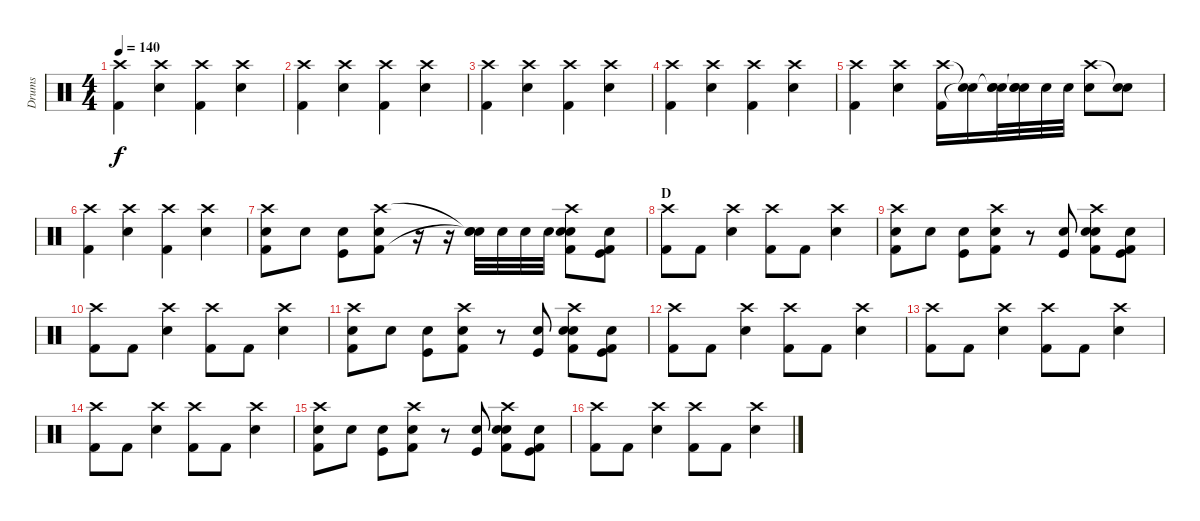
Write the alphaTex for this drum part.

\track ("Drums" "Drums") {instrument percussion}
\staff {score}
\articulation defaults
\ts (4 4)
\tempo 140
\clef neutral
\ks c
("Crash high (hit)" "Kick (hit) 2").4{dy f} ("Crash high (hit)" "Electric Snare (hit)").4 ("Crash high (hit)" "Kick (hit) 2").4 ("Crash high (hit)" "Electric Snare (hit)").4 |
("Crash high (hit)" "Kick (hit) 2").4 ("Crash high (hit)" "Electric Snare (hit)").4 ("Crash high (hit)" "Kick (hit) 2").4 ("Crash high (hit)" "Electric Snare (hit)").4 |
("Crash high (hit)" "Kick (hit) 2").4 ("Crash high (hit)" "Electric Snare (hit)").4 ("Crash high (hit)" "Kick (hit) 2").4 ("Crash high (hit)" "Electric Snare (hit)").4 |
("Crash high (hit)" "Kick (hit) 2").4 ("Crash high (hit)" "Electric Snare (hit)").4 ("Crash high (hit)" "Kick (hit) 2").4 ("Crash high (hit)" "Electric Snare (hit)").4 |
("Crash high (hit)" "Kick (hit) 2").4 ("Crash high (hit)" "Electric Snare (hit)").4 ("Crash high (hit)" "Kick (hit) 2").16 ("Snare (hit)"{t} "Snare (hit)"{t}).16 ("Snare (hit)"{t} "Electric Snare (hit)" "Snare (hit)").32 ("Snare (hit)"{t} "Electric Snare (hit)" "Snare (hit)"{t}).32 "Electric Snare (hit)".32 "Electric Snare (hit)".32 ("Crash high (hit)" "Electric Snare (hit)").8 ("Snare (hit)"{t} "Electric Snare (hit)").8 |
("Crash high (hit)" "Kick (hit) 2").4 ("Crash high (hit)" "Electric Snare (hit)").4 ("Crash high (hit)" "Kick (hit) 2").4 ("Crash high (hit)" "Electric Snare (hit)").4 |
("Crash high (hit)" "Electric Snare (hit)" "Kick (hit) 2").8 "Electric Snare (hit)".8 ("Kick (hit)" "Electric Snare (hit)").8 ("Crash high (hit)" "Electric Snare (hit)" "Kick (hit) 2").8 r.16 r.16 ("Snare (hit)"{t} "Electric Snare (hit)" "Snare (hit)"{t}).32 "Electric Snare (hit)".32 "Electric Snare (hit)".32 "Electric Snare (hit)".32 ("Crash high (hit)" "Electric Snare (hit)" "Snare (hit) 2" "Kick (hit) 2").8 ("Electric Snare (hit)" "Kick (hit)" "Kick (hit) 2").8 |
\section ("" "D")
("Crash high (hit)" "Kick (hit) 2").8 "Kick (hit) 2".8 ("Crash high (hit)" "Electric Snare (hit)").4 ("Crash high (hit)" "Kick (hit) 2").8 "Kick (hit) 2".8 ("Crash high (hit)" "Electric Snare (hit)").4 |
("Crash high (hit)" "Electric Snare (hit)" "Kick (hit) 2").8 "Electric Snare (hit)".8 ("Kick (hit)" "Electric Snare (hit)").8 ("Crash high (hit)" "Electric Snare (hit)" "Kick (hit) 2").8 r.8 ("Kick (hit)" "Electric Snare (hit)").8 ("Crash high (hit)" "Electric Snare (hit)" "Snare (hit) 2" "Kick (hit) 2").8 ("Electric Snare (hit)" "Kick (hit)" "Kick (hit) 2").8 |
("Crash high (hit)" "Kick (hit) 2").8 "Kick (hit) 2".8 ("Crash high (hit)" "Electric Snare (hit)").4 ("Crash high (hit)" "Kick (hit) 2").8 "Kick (hit) 2".8 ("Crash high (hit)" "Electric Snare (hit)").4 |
("Crash high (hit)" "Electric Snare (hit)" "Kick (hit) 2").8 "Electric Snare (hit)".8 ("Kick (hit)" "Electric Snare (hit)").8 ("Crash high (hit)" "Electric Snare (hit)" "Kick (hit) 2").8 r.8 ("Kick (hit)" "Electric Snare (hit)").8 ("Crash high (hit)" "Electric Snare (hit)" "Snare (hit) 2" "Kick (hit) 2").8 ("Electric Snare (hit)" "Kick (hit)" "Kick (hit) 2").8 |
("Crash high (hit)" "Kick (hit) 2").8 "Kick (hit) 2".8 ("Crash high (hit)" "Electric Snare (hit)").4 ("Crash high (hit)" "Kick (hit) 2").8 "Kick (hit) 2".8 ("Crash high (hit)" "Electric Snare (hit)").4 |
("Crash high (hit)" "Kick (hit) 2").8 "Kick (hit) 2".8 ("Crash high (hit)" "Electric Snare (hit)").4 ("Crash high (hit)" "Kick (hit) 2").8 "Kick (hit) 2".8 ("Crash high (hit)" "Electric Snare (hit)").4 |
("Crash high (hit)" "Kick (hit) 2").8 "Kick (hit) 2".8 ("Crash high (hit)" "Electric Snare (hit)").4 ("Crash high (hit)" "Kick (hit) 2").8 "Kick (hit) 2".8 ("Crash high (hit)" "Electric Snare (hit)").4 |
("Crash high (hit)" "Electric Snare (hit)" "Kick (hit) 2").8 "Electric Snare (hit)".8 ("Kick (hit)" "Electric Snare (hit)").8 ("Crash high (hit)" "Electric Snare (hit)" "Kick (hit) 2").8 r.8 ("Kick (hit)" "Electric Snare (hit)").8 ("Crash high (hit)" "Electric Snare (hit)" "Snare (hit) 2" "Kick (hit) 2").8 ("Electric Snare (hit)" "Kick (hit)" "Kick (hit) 2").8 |
("Crash high (hit)" "Kick (hit) 2").8 "Kick (hit) 2".8 ("Crash high (hit)" "Electric Snare (hit)").4 ("Crash high (hit)" "Kick (hit) 2").8 "Kick (hit) 2".8 ("Crash high (hit)" "Electric Snare (hit)").4
